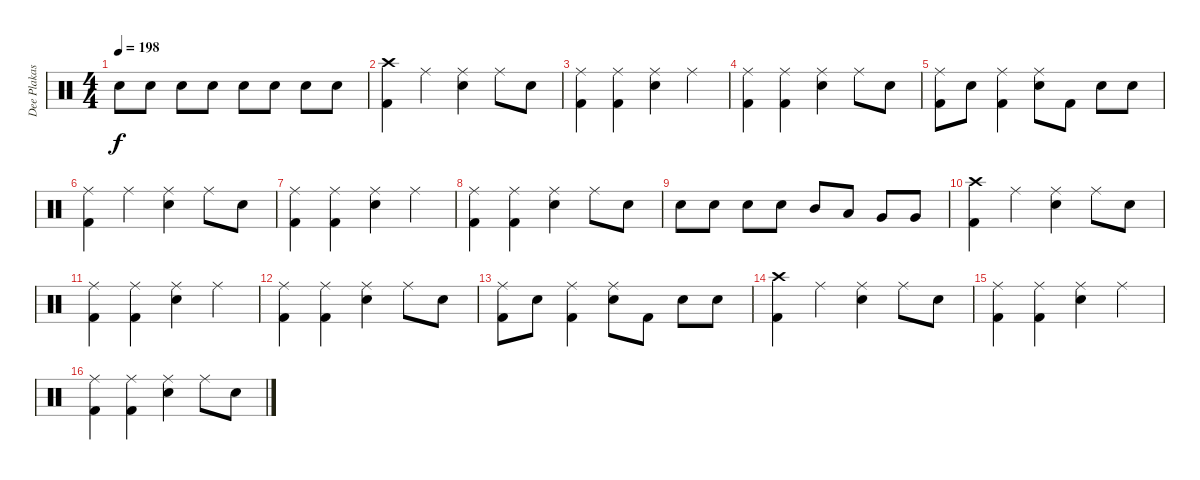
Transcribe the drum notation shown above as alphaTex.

\track ("Dee Plakas" "Dee Plakas") {instrument percussion}
\staff {score}
\articulation defaults
\ts (4 4)
\tempo 198
\clef neutral
\ks c "Snare (hit) 2".8{dy f} "Snare (hit) 2".8 "Snare (hit) 2".8 "Snare (hit) 2".8 "Snare (hit) 2".8 "Snare (hit) 2".8 "Snare (hit) 2".8 "Snare (hit) 2".8
|
("Crash high (hit)" "Kick (hit) 2").4 "Ride (middle)".4 ("Ride (middle)" "Snare (hit) 2").4 "Ride (middle)".8 "Snare (hit) 2".8 |
("Ride (middle)" "Kick (hit) 2").4 ("Ride (middle)" "Kick (hit) 2").4 ("Ride (middle)" "Snare (hit) 2").4 "Ride (middle)".4 |
("Ride (middle)" "Kick (hit) 2").4 ("Ride (middle)" "Kick (hit) 2").4 ("Ride (middle)" "Snare (hit) 2").4 "Ride (middle)".8 "Snare (hit) 2".8 |
("Ride (middle)" "Kick (hit) 2").8 "Snare (hit) 2".8 ("Ride (middle)" "Kick (hit) 2").4 ("Ride (middle)" "Snare (hit) 2").8 "Kick (hit) 2".8 "Snare (hit) 2".8 "Snare (hit) 2".8 |
("Ride (middle)" "Kick (hit) 2").4 "Ride (middle)".4 ("Ride (middle)" "Snare (hit) 2").4 "Ride (middle)".8 "Snare (hit) 2".8 |
("Ride (middle)" "Kick (hit) 2").4 ("Ride (middle)" "Kick (hit) 2").4 ("Ride (middle)" "Snare (hit) 2").4 "Ride (middle)".4 |
("Ride (middle)" "Kick (hit) 2").4 ("Ride (middle)" "Kick (hit) 2").4 ("Ride (middle)" "Snare (hit) 2").4 "Ride (middle)".8 "Snare (hit) 2".8 |
"Snare (hit) 2".8 "Snare (hit) 2".8 "Snare (hit) 2".8 "Snare (hit) 2".8 "Mid Tom (hit)".8 "Low Tom (hit)".8 "Very Low Tom (hit)".8 "Very Low Tom (hit)".8 |
("Crash high (hit)" "Kick (hit) 2").4 "Ride (middle)".4 ("Ride (middle)" "Snare (hit) 2").4 "Ride (middle)".8 "Snare (hit) 2".8 |
("Ride (middle)" "Kick (hit) 2").4 ("Ride (middle)" "Kick (hit) 2").4 ("Ride (middle)" "Snare (hit) 2").4 "Ride (middle)".4 |
("Ride (middle)" "Kick (hit) 2").4 ("Ride (middle)" "Kick (hit) 2").4 ("Ride (middle)" "Snare (hit) 2").4 "Ride (middle)".8 "Snare (hit) 2".8 |
("Ride (middle)" "Kick (hit) 2").8 "Snare (hit) 2".8 ("Ride (middle)" "Kick (hit) 2").4 ("Ride (middle)" "Snare (hit) 2").8 "Kick (hit) 2".8 "Snare (hit) 2".8 "Snare (hit) 2".8 |
("Crash high (hit)" "Kick (hit) 2").4 "Ride (middle)".4 ("Ride (middle)" "Snare (hit) 2").4 "Ride (middle)".8 "Snare (hit) 2".8 |
("Ride (middle)" "Kick (hit) 2").4 ("Ride (middle)" "Kick (hit) 2").4 ("Ride (middle)" "Snare (hit) 2").4 "Ride (middle)".4 |
("Ride (middle)" "Kick (hit) 2").4 ("Ride (middle)" "Kick (hit) 2").4 ("Ride (middle)" "Snare (hit) 2").4 "Ride (middle)".8 "Snare (hit) 2".8
